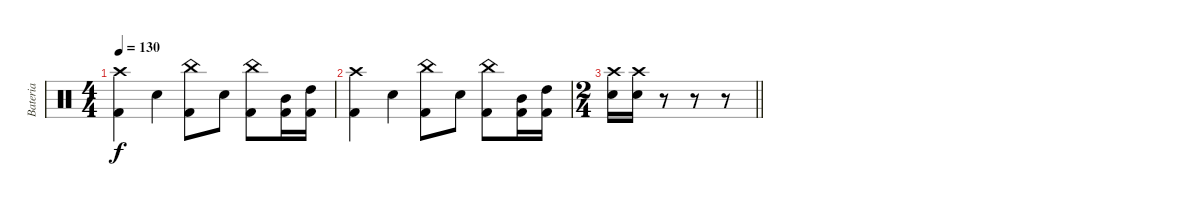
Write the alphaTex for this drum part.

\track ("Bateria" "Bateria") {instrument percussion}
\staff {score}
\articulation defaults
\ts (4 4)
\tempo 130
\clef neutral
\ks c
("Kick (hit) 2" "Crash high (hit)").4{dy f} "Electric Snare (hit)".4 ("China (hit)" "Kick (hit) 2").8 "Electric Snare (hit)".8 ("China (hit)" "Kick (hit) 2").8 ("Mid Tom (hit)" "Kick (hit) 2").16 ("High Tom (hit)" "Kick (hit) 2").16 |
("Kick (hit) 2" "Crash high (hit)").4 "Electric Snare (hit)".4 ("China (hit)" "Kick (hit) 2").8 "Electric Snare (hit)".8 ("China (hit)" "Kick (hit) 2").8 ("Mid Tom (hit)" "Kick (hit) 2").16 ("High Tom (hit)" "Kick (hit) 2").16 |
\ts (2 4)
\barLineRight lightlight
("Electric Snare (hit)" "Crash high (hit)").16 ("Electric Snare (hit)" "Crash high (hit)").16 r.8 r.8 r.8
